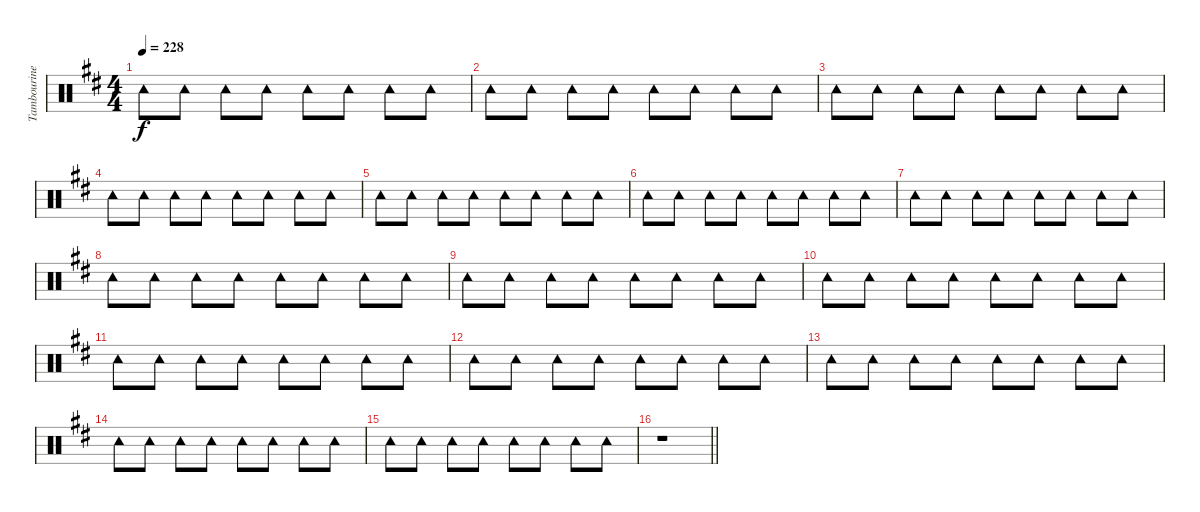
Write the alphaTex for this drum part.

\track ("Tambourine" "Tambourine") {instrument percussion}
\staff {score}
\articulation defaults
\ts (4 4)
\tempo 228
\clef neutral
\ks d "Tambourine (hit)".8{dy f} "Tambourine (hit)".8 "Tambourine (hit)".8 "Tambourine (hit)".8 "Tambourine (hit)".8 "Tambourine (hit)".8 "Tambourine (hit)".8 "Tambourine (hit)".8
|
"Tambourine (hit)".8 "Tambourine (hit)".8 "Tambourine (hit)".8 "Tambourine (hit)".8 "Tambourine (hit)".8 "Tambourine (hit)".8 "Tambourine (hit)".8 "Tambourine (hit)".8 |
"Tambourine (hit)".8 "Tambourine (hit)".8 "Tambourine (hit)".8 "Tambourine (hit)".8 "Tambourine (hit)".8 "Tambourine (hit)".8 "Tambourine (hit)".8 "Tambourine (hit)".8 |
"Tambourine (hit)".8 "Tambourine (hit)".8 "Tambourine (hit)".8 "Tambourine (hit)".8 "Tambourine (hit)".8 "Tambourine (hit)".8 "Tambourine (hit)".8 "Tambourine (hit)".8 |
"Tambourine (hit)".8 "Tambourine (hit)".8 "Tambourine (hit)".8 "Tambourine (hit)".8 "Tambourine (hit)".8 "Tambourine (hit)".8 "Tambourine (hit)".8 "Tambourine (hit)".8 |
"Tambourine (hit)".8 "Tambourine (hit)".8 "Tambourine (hit)".8 "Tambourine (hit)".8 "Tambourine (hit)".8 "Tambourine (hit)".8 "Tambourine (hit)".8 "Tambourine (hit)".8 |
"Tambourine (hit)".8 "Tambourine (hit)".8 "Tambourine (hit)".8 "Tambourine (hit)".8 "Tambourine (hit)".8 "Tambourine (hit)".8 "Tambourine (hit)".8 "Tambourine (hit)".8 |
"Tambourine (hit)".8 "Tambourine (hit)".8 "Tambourine (hit)".8 "Tambourine (hit)".8 "Tambourine (hit)".8 "Tambourine (hit)".8 "Tambourine (hit)".8 "Tambourine (hit)".8 |
"Tambourine (hit)".8 "Tambourine (hit)".8 "Tambourine (hit)".8 "Tambourine (hit)".8 "Tambourine (hit)".8 "Tambourine (hit)".8 "Tambourine (hit)".8 "Tambourine (hit)".8 |
"Tambourine (hit)".8 "Tambourine (hit)".8 "Tambourine (hit)".8 "Tambourine (hit)".8 "Tambourine (hit)".8 "Tambourine (hit)".8 "Tambourine (hit)".8 "Tambourine (hit)".8 |
"Tambourine (hit)".8 "Tambourine (hit)".8 "Tambourine (hit)".8 "Tambourine (hit)".8 "Tambourine (hit)".8 "Tambourine (hit)".8 "Tambourine (hit)".8 "Tambourine (hit)".8 |
"Tambourine (hit)".8 "Tambourine (hit)".8 "Tambourine (hit)".8 "Tambourine (hit)".8 "Tambourine (hit)".8 "Tambourine (hit)".8 "Tambourine (hit)".8 "Tambourine (hit)".8 |
"Tambourine (hit)".8 "Tambourine (hit)".8 "Tambourine (hit)".8 "Tambourine (hit)".8 "Tambourine (hit)".8 "Tambourine (hit)".8 "Tambourine (hit)".8 "Tambourine (hit)".8 |
"Tambourine (hit)".8 "Tambourine (hit)".8 "Tambourine (hit)".8 "Tambourine (hit)".8 "Tambourine (hit)".8 "Tambourine (hit)".8 "Tambourine (hit)".8 "Tambourine (hit)".8 |
"Tambourine (hit)".8 "Tambourine (hit)".8 "Tambourine (hit)".8 "Tambourine (hit)".8 "Tambourine (hit)".8 "Tambourine (hit)".8 "Tambourine (hit)".8 "Tambourine (hit)".8 |
\barLineRight lightlight
r.1
